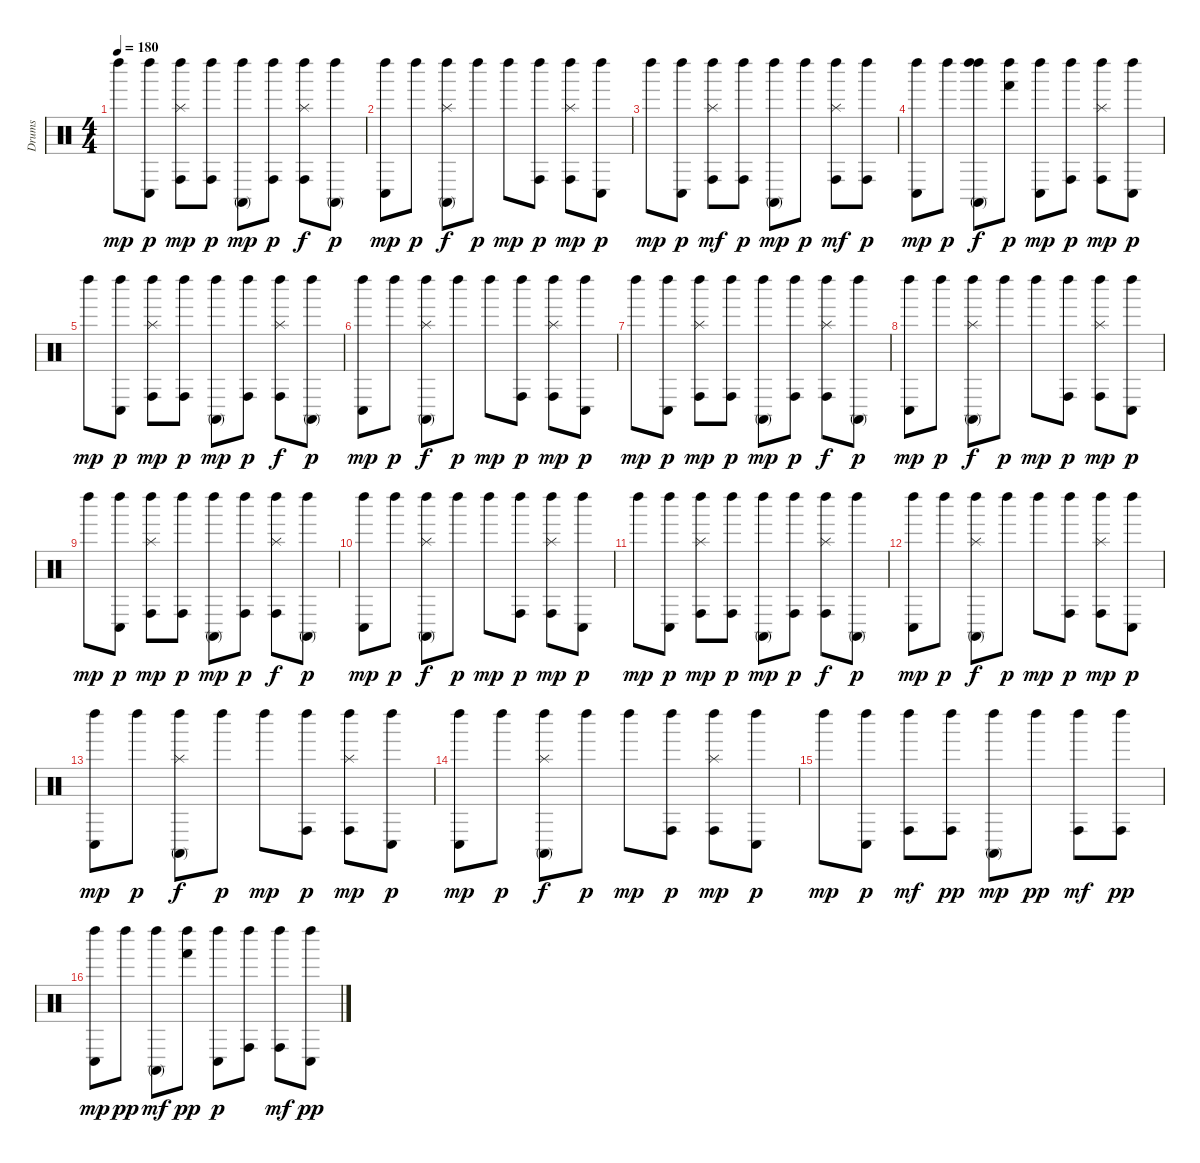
\track ("Drums" "Drums") {instrument percussion}
\staff {score}
\articulation defaults
\ts (4 4)
\tempo 180
\clef neutral
\ks c "Left Maraca (hit)".8{dy mp}
("Left Maraca (hit)" "Conga low (hit)").8{dy p} ("Left Maraca (hit)" "Conga high (hit)" "Splash (hit)").8{dy mp} ("Left Maraca (hit)" "Conga high (hit)").8{dy p} ("Left Maraca (hit)" "Conga high (mute)").8{dy mp} ("Left Maraca (hit)" "Conga high (hit)").8{dy p} ("Left Maraca (hit)" "Conga high (hit)" "Splash (hit)").8{dy f} ("Left Maraca (hit)" "Conga high (mute)").8{dy p} |
("Left Maraca (hit)" "Conga low (hit)").8{dy mp} "Left Maraca (hit)".8{dy p} ("Left Maraca (hit)" "Conga high (mute)" "Splash (hit)").8{dy f} "Left Maraca (hit)".8{dy p} "Left Maraca (hit)".8{dy mp} ("Left Maraca (hit)" "Conga high (hit)").8{dy p} ("Left Maraca (hit)" "Conga high (hit)" "Splash (hit)").8{dy mp} ("Left Maraca (hit)" "Conga low (hit)").8{dy p} |
"Left Maraca (hit)".8{dy mp} ("Left Maraca (hit)" "Conga low (hit)").8{dy p} ("Left Maraca (hit)" "Conga high (hit)" "Splash (hit)").8{dy mf} ("Left Maraca (hit)" "Conga high (hit)").8{dy p} ("Left Maraca (hit)" "Conga high (mute)").8{dy mp} "Left Maraca (hit)".8{dy p} ("Left Maraca (hit)" "Conga high (hit)" "Splash (hit)").8{dy mf} ("Left Maraca (hit)" "Conga high (hit)").8{dy p} |
("Left Maraca (hit)" "Conga low (hit)").8{dy mp} "Left Maraca (hit)".8{dy p} ("Left Maraca (hit)" "Conga high (mute)" "Left Maraca (hit)").8{dy f} ("Left Maraca (hit)" "Hand (hit)").8{dy p} ("Left Maraca (hit)" "Conga low (hit)").8{dy mp} ("Left Maraca (hit)" "Conga high (hit)").8{dy p} ("Left Maraca (hit)" "Conga high (hit)" "Splash (hit)").8{dy mp} ("Left Maraca (hit)" "Conga low (hit)").8{dy p} |
"Left Maraca (hit)".8{dy mp} ("Left Maraca (hit)" "Conga low (hit)").8{dy p} ("Left Maraca (hit)" "Conga high (hit)" "Splash (hit)").8{dy mp} ("Left Maraca (hit)" "Conga high (hit)").8{dy p} ("Left Maraca (hit)" "Conga high (mute)").8{dy mp} ("Left Maraca (hit)" "Conga high (hit)").8{dy p} ("Left Maraca (hit)" "Conga high (hit)" "Splash (hit)").8{dy f} ("Left Maraca (hit)" "Conga high (mute)").8{dy p} |
("Left Maraca (hit)" "Conga low (hit)").8{dy mp} "Left Maraca (hit)".8{dy p} ("Left Maraca (hit)" "Conga high (mute)" "Splash (hit)").8{dy f} "Left Maraca (hit)".8{dy p} "Left Maraca (hit)".8{dy mp} ("Left Maraca (hit)" "Conga high (hit)").8{dy p} ("Left Maraca (hit)" "Conga high (hit)" "Splash (hit)").8{dy mp} ("Left Maraca (hit)" "Conga low (hit)").8{dy p} |
"Left Maraca (hit)".8{dy mp} ("Left Maraca (hit)" "Conga low (hit)").8{dy p} ("Left Maraca (hit)" "Conga high (hit)" "Splash (hit)").8{dy mp} ("Left Maraca (hit)" "Conga high (hit)").8{dy p} ("Left Maraca (hit)" "Conga high (mute)").8{dy mp} ("Left Maraca (hit)" "Conga high (hit)").8{dy p} ("Left Maraca (hit)" "Conga high (hit)" "Splash (hit)").8{dy f} ("Left Maraca (hit)" "Conga high (mute)").8{dy p} |
("Left Maraca (hit)" "Conga low (hit)").8{dy mp} "Left Maraca (hit)".8{dy p} ("Left Maraca (hit)" "Conga high (mute)" "Splash (hit)").8{dy f} "Left Maraca (hit)".8{dy p} "Left Maraca (hit)".8{dy mp} ("Left Maraca (hit)" "Conga high (hit)").8{dy p} ("Left Maraca (hit)" "Conga high (hit)" "Splash (hit)").8{dy mp} ("Left Maraca (hit)" "Conga low (hit)").8{dy p} |
"Left Maraca (hit)".8{dy mp} ("Left Maraca (hit)" "Conga low (hit)").8{dy p} ("Left Maraca (hit)" "Conga high (hit)" "Splash (hit)").8{dy mp} ("Left Maraca (hit)" "Conga high (hit)").8{dy p} ("Left Maraca (hit)" "Conga high (mute)").8{dy mp} ("Left Maraca (hit)" "Conga high (hit)").8{dy p} ("Left Maraca (hit)" "Conga high (hit)" "Splash (hit)").8{dy f} ("Left Maraca (hit)" "Conga high (mute)").8{dy p} |
("Left Maraca (hit)" "Conga low (hit)").8{dy mp} "Left Maraca (hit)".8{dy p} ("Left Maraca (hit)" "Conga high (mute)" "Splash (hit)").8{dy f} "Left Maraca (hit)".8{dy p} "Left Maraca (hit)".8{dy mp} ("Left Maraca (hit)" "Conga high (hit)").8{dy p} ("Left Maraca (hit)" "Conga high (hit)" "Splash (hit)").8{dy mp} ("Left Maraca (hit)" "Conga low (hit)").8{dy p} |
"Left Maraca (hit)".8{dy mp} ("Left Maraca (hit)" "Conga low (hit)").8{dy p} ("Left Maraca (hit)" "Conga high (hit)" "Splash (hit)").8{dy mp} ("Left Maraca (hit)" "Conga high (hit)").8{dy p} ("Left Maraca (hit)" "Conga high (mute)").8{dy mp} ("Left Maraca (hit)" "Conga high (hit)").8{dy p} ("Left Maraca (hit)" "Conga high (hit)" "Splash (hit)").8{dy f} ("Left Maraca (hit)" "Conga high (mute)").8{dy p} |
("Left Maraca (hit)" "Conga low (hit)").8{dy mp} "Left Maraca (hit)".8{dy p} ("Left Maraca (hit)" "Conga high (mute)" "Splash (hit)").8{dy f} "Left Maraca (hit)".8{dy p} "Left Maraca (hit)".8{dy mp} ("Left Maraca (hit)" "Conga high (hit)").8{dy p} ("Left Maraca (hit)" "Conga high (hit)" "Splash (hit)").8{dy mp} ("Left Maraca (hit)" "Conga low (hit)").8{dy p} |
("Left Maraca (hit)" "Conga low (hit)").8{dy mp} "Left Maraca (hit)".8{dy p} ("Left Maraca (hit)" "Conga high (mute)" "Splash (hit)").8{dy f} "Left Maraca (hit)".8{dy p} "Left Maraca (hit)".8{dy mp} ("Left Maraca (hit)" "Conga high (hit)").8{dy p} ("Left Maraca (hit)" "Conga high (hit)" "Splash (hit)").8{dy mp} ("Left Maraca (hit)" "Conga low (hit)").8{dy p} |
("Left Maraca (hit)" "Conga low (hit)").8{dy mp} "Left Maraca (hit)".8{dy p} ("Left Maraca (hit)" "Conga high (mute)" "Splash (hit)").8{dy f} "Left Maraca (hit)".8{dy p} "Left Maraca (hit)".8{dy mp} ("Left Maraca (hit)" "Conga high (hit)").8{dy p} ("Left Maraca (hit)" "Conga high (hit)" "Splash (hit)").8{dy mp} ("Left Maraca (hit)" "Conga low (hit)").8{dy p} |
"Left Maraca (hit)".8{dy mp} ("Left Maraca (hit)" "Conga low (hit)").8{dy p} ("Left Maraca (hit)" "Conga high (hit)").8{dy mf} ("Left Maraca (hit)" "Conga high (hit)").8{dy pp} ("Left Maraca (hit)" "Conga high (mute)").8{dy mp} "Left Maraca (hit)".8{dy pp} ("Left Maraca (hit)" "Conga high (hit)").8{dy mf} ("Left Maraca (hit)" "Conga high (hit)").8{dy pp} |
("Left Maraca (hit)" "Conga low (hit)").8{dy mp} "Left Maraca (hit)".8{dy pp} ("Left Maraca (hit)" "Conga high (mute)").8{dy mf} ("Left Maraca (hit)" "Hand (hit)").8{dy pp} ("Left Maraca (hit)" "Conga low (hit)").8{dy p} ("Left Maraca (hit)" "Conga high (hit)").8 ("Left Maraca (hit)" "Conga high (hit)").8{dy mf} ("Left Maraca (hit)" "Conga low (hit)").8{dy pp}
